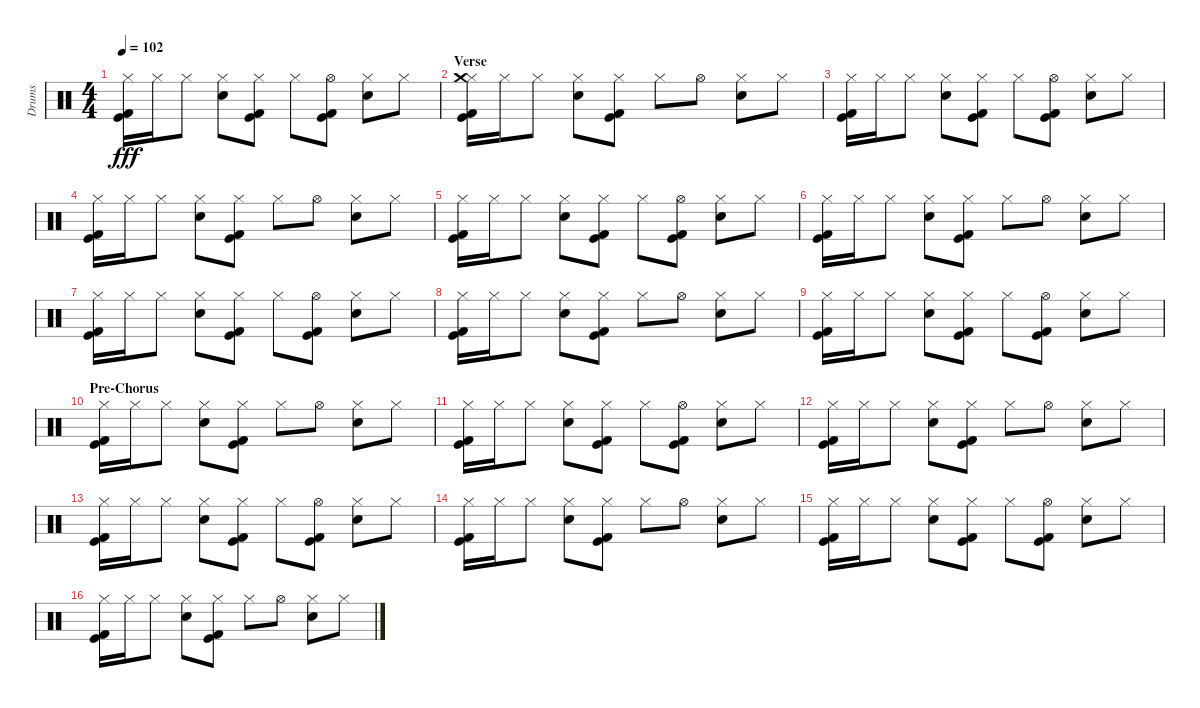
\track ("Drums" "Drums") {instrument percussion}
\staff {score}
\articulation defaults
\ts (4 4)
\tempo 102
\clef neutral
\ks c
("Kick (hit) 2" "Kick (hit)" "Hi-Hat (closed)").16{dy fff} "Hi-Hat (closed)".16 "Hi-Hat (closed)".8 ("Hand Clap (hit)" "Hi-Hat (closed)").8 ("Kick (hit) 2" "Kick (hit)" "Hi-Hat (closed)").8 "Hi-Hat (closed)".8 ("Kick (hit) 2" "Kick (hit)" "Hi-Hat (open)").8 ("Hand Clap (hit)" "Hi-Hat (closed)").8 "Hi-Hat (closed)".8 |
\section ("" "Verse")
("Kick (hit) 2" "Kick (hit)" "Hi-Hat (closed)" "Crash medium (hit)").16 "Hi-Hat (closed)".16 "Hi-Hat (closed)".8 ("Hand Clap (hit)" "Hi-Hat (closed)").8 ("Kick (hit) 2" "Kick (hit)" "Hi-Hat (closed)").8 "Hi-Hat (closed)".8 "Hi-Hat (open)".8 ("Hand Clap (hit)" "Hi-Hat (closed)").8 "Hi-Hat (closed)".8 |
("Kick (hit) 2" "Kick (hit)" "Hi-Hat (closed)").16 "Hi-Hat (closed)".16 "Hi-Hat (closed)".8 ("Hand Clap (hit)" "Hi-Hat (closed)").8 ("Kick (hit) 2" "Kick (hit)" "Hi-Hat (closed)").8 "Hi-Hat (closed)".8 ("Kick (hit) 2" "Kick (hit)" "Hi-Hat (open)").8 ("Hand Clap (hit)" "Hi-Hat (closed)").8 "Hi-Hat (closed)".8 |
("Kick (hit) 2" "Kick (hit)" "Hi-Hat (closed)").16 "Hi-Hat (closed)".16 "Hi-Hat (closed)".8 ("Hand Clap (hit)" "Hi-Hat (closed)").8 ("Kick (hit) 2" "Kick (hit)" "Hi-Hat (closed)").8 "Hi-Hat (closed)".8 "Hi-Hat (open)".8 ("Hand Clap (hit)" "Hi-Hat (closed)").8 "Hi-Hat (closed)".8 |
("Kick (hit) 2" "Kick (hit)" "Hi-Hat (closed)").16 "Hi-Hat (closed)".16 "Hi-Hat (closed)".8 ("Hand Clap (hit)" "Hi-Hat (closed)").8 ("Kick (hit) 2" "Kick (hit)" "Hi-Hat (closed)").8 "Hi-Hat (closed)".8 ("Kick (hit) 2" "Kick (hit)" "Hi-Hat (open)").8 ("Hand Clap (hit)" "Hi-Hat (closed)").8 "Hi-Hat (closed)".8 |
("Kick (hit) 2" "Kick (hit)" "Hi-Hat (closed)").16 "Hi-Hat (closed)".16 "Hi-Hat (closed)".8 ("Hand Clap (hit)" "Hi-Hat (closed)").8 ("Kick (hit) 2" "Kick (hit)" "Hi-Hat (closed)").8 "Hi-Hat (closed)".8 "Hi-Hat (open)".8 ("Hand Clap (hit)" "Hi-Hat (closed)").8 "Hi-Hat (closed)".8 |
("Kick (hit) 2" "Kick (hit)" "Hi-Hat (closed)").16 "Hi-Hat (closed)".16 "Hi-Hat (closed)".8 ("Hand Clap (hit)" "Hi-Hat (closed)").8 ("Kick (hit) 2" "Kick (hit)" "Hi-Hat (closed)").8 "Hi-Hat (closed)".8 ("Kick (hit) 2" "Kick (hit)" "Hi-Hat (open)").8 ("Hand Clap (hit)" "Hi-Hat (closed)").8 "Hi-Hat (closed)".8 |
("Kick (hit) 2" "Kick (hit)" "Hi-Hat (closed)").16 "Hi-Hat (closed)".16 "Hi-Hat (closed)".8 ("Hand Clap (hit)" "Hi-Hat (closed)").8 ("Kick (hit) 2" "Kick (hit)" "Hi-Hat (closed)").8 "Hi-Hat (closed)".8 "Hi-Hat (open)".8 ("Hand Clap (hit)" "Hi-Hat (closed)").8 "Hi-Hat (closed)".8 |
("Kick (hit) 2" "Kick (hit)" "Hi-Hat (closed)").16 "Hi-Hat (closed)".16 "Hi-Hat (closed)".8 ("Hand Clap (hit)" "Hi-Hat (closed)").8 ("Kick (hit) 2" "Kick (hit)" "Hi-Hat (closed)").8 "Hi-Hat (closed)".8 ("Kick (hit) 2" "Kick (hit)" "Hi-Hat (open)").8 ("Hand Clap (hit)" "Hi-Hat (closed)").8 "Hi-Hat (closed)".8 |
\section ("" "Pre-Chorus")
("Kick (hit) 2" "Kick (hit)" "Hi-Hat (closed)").16 "Hi-Hat (closed)".16 "Hi-Hat (closed)".8 ("Hand Clap (hit)" "Hi-Hat (closed)").8 ("Kick (hit) 2" "Kick (hit)" "Hi-Hat (closed)").8 "Hi-Hat (closed)".8 "Hi-Hat (open)".8 ("Hand Clap (hit)" "Hi-Hat (closed)").8 "Hi-Hat (closed)".8 |
("Kick (hit) 2" "Kick (hit)" "Hi-Hat (closed)").16 "Hi-Hat (closed)".16 "Hi-Hat (closed)".8 ("Hand Clap (hit)" "Hi-Hat (closed)").8 ("Kick (hit) 2" "Kick (hit)" "Hi-Hat (closed)").8 "Hi-Hat (closed)".8 ("Kick (hit) 2" "Kick (hit)" "Hi-Hat (open)").8 ("Hand Clap (hit)" "Hi-Hat (closed)").8 "Hi-Hat (closed)".8 |
("Kick (hit) 2" "Kick (hit)" "Hi-Hat (closed)").16 "Hi-Hat (closed)".16 "Hi-Hat (closed)".8 ("Hand Clap (hit)" "Hi-Hat (closed)").8 ("Kick (hit) 2" "Kick (hit)" "Hi-Hat (closed)").8 "Hi-Hat (closed)".8 "Hi-Hat (open)".8 ("Hand Clap (hit)" "Hi-Hat (closed)").8 "Hi-Hat (closed)".8 |
("Kick (hit) 2" "Kick (hit)" "Hi-Hat (closed)").16 "Hi-Hat (closed)".16 "Hi-Hat (closed)".8 ("Hand Clap (hit)" "Hi-Hat (closed)").8 ("Kick (hit) 2" "Kick (hit)" "Hi-Hat (closed)").8 "Hi-Hat (closed)".8 ("Kick (hit) 2" "Kick (hit)" "Hi-Hat (open)").8 ("Hand Clap (hit)" "Hi-Hat (closed)").8 "Hi-Hat (closed)".8 |
("Kick (hit) 2" "Kick (hit)" "Hi-Hat (closed)").16 "Hi-Hat (closed)".16 "Hi-Hat (closed)".8 ("Hand Clap (hit)" "Hi-Hat (closed)").8 ("Kick (hit) 2" "Kick (hit)" "Hi-Hat (closed)").8 "Hi-Hat (closed)".8 "Hi-Hat (open)".8 ("Hand Clap (hit)" "Hi-Hat (closed)").8 "Hi-Hat (closed)".8 |
("Kick (hit) 2" "Kick (hit)" "Hi-Hat (closed)").16 "Hi-Hat (closed)".16 "Hi-Hat (closed)".8 ("Hand Clap (hit)" "Hi-Hat (closed)").8 ("Kick (hit) 2" "Kick (hit)" "Hi-Hat (closed)").8 "Hi-Hat (closed)".8 ("Kick (hit) 2" "Kick (hit)" "Hi-Hat (open)").8 ("Hand Clap (hit)" "Hi-Hat (closed)").8 "Hi-Hat (closed)".8 |
("Kick (hit) 2" "Kick (hit)" "Hi-Hat (closed)").16 "Hi-Hat (closed)".16 "Hi-Hat (closed)".8 ("Hand Clap (hit)" "Hi-Hat (closed)").8 ("Kick (hit) 2" "Kick (hit)" "Hi-Hat (closed)").8 "Hi-Hat (closed)".8 "Hi-Hat (open)".8 ("Hand Clap (hit)" "Hi-Hat (closed)").8 "Hi-Hat (closed)".8
